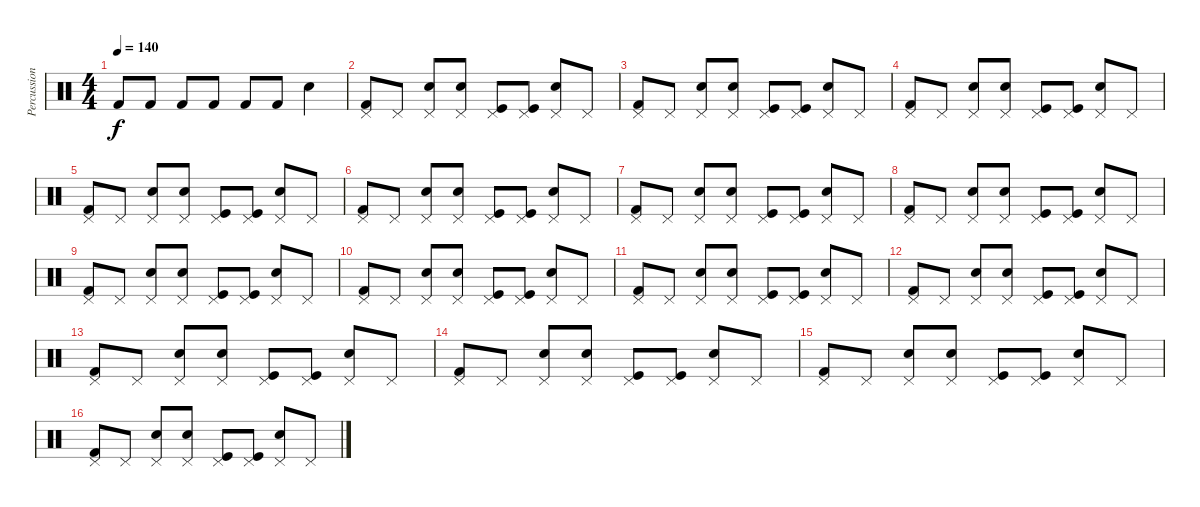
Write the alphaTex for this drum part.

\track ("Percussion" "Percussion") {instrument percussion}
\staff {score}
\articulation defaults
\ts (4 4)
\tempo 140
\clef neutral
\ks c "Kick (hit) 2".8{dy f} "Kick (hit) 2".8 "Kick (hit) 2".8 "Kick (hit) 2".8 "Kick (hit) 2".8 "Kick (hit) 2".8 "Snare (hit) 2".4
|
("Pedal Hi-Hat (hit)" "Kick (hit) 2").8 "Pedal Hi-Hat (hit)".8 ("Pedal Hi-Hat (hit)" "Snare (hit) 2").8 ("Pedal Hi-Hat (hit)" "Snare (hit) 2").8 ("Pedal Hi-Hat (hit)" "Kick (hit)").8 ("Pedal Hi-Hat (hit)" "Kick (hit)").8 ("Pedal Hi-Hat (hit)" "Snare (hit) 2").8 "Pedal Hi-Hat (hit)".8 |
("Pedal Hi-Hat (hit)" "Kick (hit) 2").8 "Pedal Hi-Hat (hit)".8 ("Pedal Hi-Hat (hit)" "Snare (hit) 2").8 ("Pedal Hi-Hat (hit)" "Snare (hit) 2").8 ("Pedal Hi-Hat (hit)" "Kick (hit)").8 ("Pedal Hi-Hat (hit)" "Kick (hit)").8 ("Pedal Hi-Hat (hit)" "Snare (hit) 2").8 "Pedal Hi-Hat (hit)".8 |
("Pedal Hi-Hat (hit)" "Kick (hit) 2").8 "Pedal Hi-Hat (hit)".8 ("Pedal Hi-Hat (hit)" "Snare (hit) 2").8 ("Pedal Hi-Hat (hit)" "Snare (hit) 2").8 ("Pedal Hi-Hat (hit)" "Kick (hit)").8 ("Pedal Hi-Hat (hit)" "Kick (hit)").8 ("Pedal Hi-Hat (hit)" "Snare (hit) 2").8 "Pedal Hi-Hat (hit)".8 |
("Pedal Hi-Hat (hit)" "Kick (hit) 2").8 "Pedal Hi-Hat (hit)".8 ("Pedal Hi-Hat (hit)" "Snare (hit) 2").8 ("Pedal Hi-Hat (hit)" "Snare (hit) 2").8 ("Pedal Hi-Hat (hit)" "Kick (hit)").8 ("Pedal Hi-Hat (hit)" "Kick (hit)").8 ("Pedal Hi-Hat (hit)" "Snare (hit) 2").8 "Pedal Hi-Hat (hit)".8 |
("Pedal Hi-Hat (hit)" "Kick (hit) 2").8 "Pedal Hi-Hat (hit)".8 ("Pedal Hi-Hat (hit)" "Snare (hit) 2").8 ("Pedal Hi-Hat (hit)" "Snare (hit) 2").8 ("Pedal Hi-Hat (hit)" "Kick (hit)").8 ("Pedal Hi-Hat (hit)" "Kick (hit)").8 ("Pedal Hi-Hat (hit)" "Snare (hit) 2").8 "Pedal Hi-Hat (hit)".8 |
("Pedal Hi-Hat (hit)" "Kick (hit) 2").8 "Pedal Hi-Hat (hit)".8 ("Pedal Hi-Hat (hit)" "Snare (hit) 2").8 ("Pedal Hi-Hat (hit)" "Snare (hit) 2").8 ("Pedal Hi-Hat (hit)" "Kick (hit)").8 ("Pedal Hi-Hat (hit)" "Kick (hit)").8 ("Pedal Hi-Hat (hit)" "Snare (hit) 2").8 "Pedal Hi-Hat (hit)".8 |
("Pedal Hi-Hat (hit)" "Kick (hit) 2").8 "Pedal Hi-Hat (hit)".8 ("Pedal Hi-Hat (hit)" "Snare (hit) 2").8 ("Pedal Hi-Hat (hit)" "Snare (hit) 2").8 ("Pedal Hi-Hat (hit)" "Kick (hit)").8 ("Pedal Hi-Hat (hit)" "Kick (hit)").8 ("Pedal Hi-Hat (hit)" "Snare (hit) 2").8 "Pedal Hi-Hat (hit)".8 |
("Pedal Hi-Hat (hit)" "Kick (hit) 2").8 "Pedal Hi-Hat (hit)".8 ("Pedal Hi-Hat (hit)" "Snare (hit) 2").8 ("Pedal Hi-Hat (hit)" "Snare (hit) 2").8 ("Pedal Hi-Hat (hit)" "Kick (hit)").8 ("Pedal Hi-Hat (hit)" "Kick (hit)").8 ("Pedal Hi-Hat (hit)" "Snare (hit) 2").8 "Pedal Hi-Hat (hit)".8 |
("Pedal Hi-Hat (hit)" "Kick (hit) 2").8 "Pedal Hi-Hat (hit)".8 ("Pedal Hi-Hat (hit)" "Snare (hit) 2").8 ("Pedal Hi-Hat (hit)" "Snare (hit) 2").8 ("Pedal Hi-Hat (hit)" "Kick (hit)").8 ("Pedal Hi-Hat (hit)" "Kick (hit)").8 ("Pedal Hi-Hat (hit)" "Snare (hit) 2").8 "Pedal Hi-Hat (hit)".8 |
("Pedal Hi-Hat (hit)" "Kick (hit) 2").8 "Pedal Hi-Hat (hit)".8 ("Pedal Hi-Hat (hit)" "Snare (hit) 2").8 ("Pedal Hi-Hat (hit)" "Snare (hit) 2").8 ("Pedal Hi-Hat (hit)" "Kick (hit)").8 ("Pedal Hi-Hat (hit)" "Kick (hit)").8 ("Pedal Hi-Hat (hit)" "Snare (hit) 2").8 "Pedal Hi-Hat (hit)".8 |
("Pedal Hi-Hat (hit)" "Kick (hit) 2").8 "Pedal Hi-Hat (hit)".8 ("Pedal Hi-Hat (hit)" "Snare (hit) 2").8 ("Pedal Hi-Hat (hit)" "Snare (hit) 2").8 ("Pedal Hi-Hat (hit)" "Kick (hit)").8 ("Pedal Hi-Hat (hit)" "Kick (hit)").8 ("Pedal Hi-Hat (hit)" "Snare (hit) 2").8 "Pedal Hi-Hat (hit)".8 |
("Pedal Hi-Hat (hit)" "Kick (hit) 2").8 "Pedal Hi-Hat (hit)".8 ("Pedal Hi-Hat (hit)" "Snare (hit) 2").8 ("Pedal Hi-Hat (hit)" "Snare (hit) 2").8 ("Pedal Hi-Hat (hit)" "Kick (hit)").8 ("Pedal Hi-Hat (hit)" "Kick (hit)").8 ("Pedal Hi-Hat (hit)" "Snare (hit) 2").8 "Pedal Hi-Hat (hit)".8 |
("Pedal Hi-Hat (hit)" "Kick (hit) 2").8 "Pedal Hi-Hat (hit)".8 ("Pedal Hi-Hat (hit)" "Snare (hit) 2").8 ("Pedal Hi-Hat (hit)" "Snare (hit) 2").8 ("Pedal Hi-Hat (hit)" "Kick (hit)").8 ("Pedal Hi-Hat (hit)" "Kick (hit)").8 ("Pedal Hi-Hat (hit)" "Snare (hit) 2").8 "Pedal Hi-Hat (hit)".8 |
("Pedal Hi-Hat (hit)" "Kick (hit) 2").8 "Pedal Hi-Hat (hit)".8 ("Pedal Hi-Hat (hit)" "Snare (hit) 2").8 ("Pedal Hi-Hat (hit)" "Snare (hit) 2").8 ("Pedal Hi-Hat (hit)" "Kick (hit)").8 ("Pedal Hi-Hat (hit)" "Kick (hit)").8 ("Pedal Hi-Hat (hit)" "Snare (hit) 2").8 "Pedal Hi-Hat (hit)".8 |
("Pedal Hi-Hat (hit)" "Kick (hit) 2").8 "Pedal Hi-Hat (hit)".8 ("Pedal Hi-Hat (hit)" "Snare (hit) 2").8 ("Pedal Hi-Hat (hit)" "Snare (hit) 2").8 ("Pedal Hi-Hat (hit)" "Kick (hit)").8 ("Pedal Hi-Hat (hit)" "Kick (hit)").8 ("Pedal Hi-Hat (hit)" "Snare (hit) 2").8 "Pedal Hi-Hat (hit)".8
